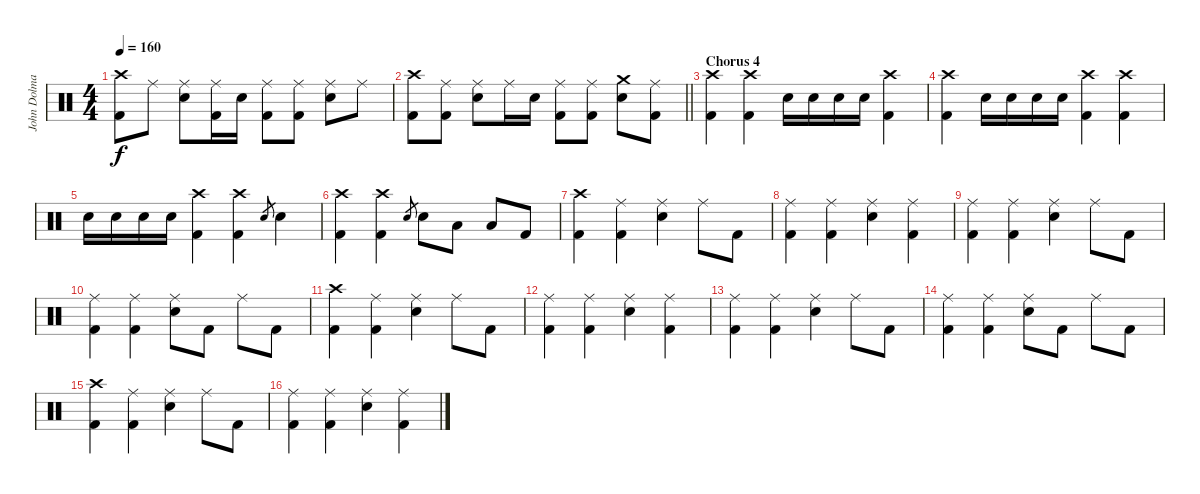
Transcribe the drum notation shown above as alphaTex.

\track ("John Dolmayan(Drums)" "John Dolma") {instrument percussion}
\staff {score}
\articulation defaults
\ts (4 4)
\tempo 160
\clef neutral
\ks c
("Crash high (hit)" "Kick (hit) 2").8{dy f} "Ride (middle)".8 ("Ride (middle)" "Snare (hit) 2").8 ("Ride (middle)" "Kick (hit) 2").16 "Snare (hit) 2".16 ("Ride (middle)" "Kick (hit) 2").8 ("Ride (middle)" "Kick (hit) 2").8 ("Ride (middle)" "Snare (hit) 2").8 "Ride (middle)".8 |
\barLineRight lightlight
("Crash high (hit)" "Kick (hit) 2").8 ("Ride (middle)" "Kick (hit) 2").8 ("Ride (middle)" "Snare (hit) 2").8 "Ride (middle)".16 "Snare (hit) 2".16 ("Ride (middle)" "Kick (hit) 2").8 ("Ride (middle)" "Kick (hit) 2").8 ("Crash medium (hit)" "Snare (hit) 2").8 ("Ride (middle)" "Kick (hit) 2").8 |
\section ("" "Chorus 4")
("Crash high (hit)" "Kick (hit) 2").4 ("Crash high (hit)" "Kick (hit) 2").4 "Snare (hit) 2".16 "Snare (hit) 2".16 "Snare (hit) 2".16 "Snare (hit) 2".16 ("Crash high (hit)" "Kick (hit) 2").4 |
("Crash high (hit)" "Kick (hit) 2").4 "Snare (hit) 2".16 "Snare (hit) 2".16 "Snare (hit) 2".16 "Snare (hit) 2".16 ("Crash high (hit)" "Kick (hit) 2").4 ("Crash high (hit)" "Kick (hit) 2").4 |
"Snare (hit) 2".16 "Snare (hit) 2".16 "Snare (hit) 2".16 "Snare (hit) 2".16 ("Crash high (hit)" "Kick (hit) 2").4 ("Crash high (hit)" "Kick (hit) 2").4 "Snare (hit) 2".8{gr} "Snare (hit) 2".4 |
("Crash high (hit)" "Kick (hit) 2").4 ("Crash high (hit)" "Kick (hit) 2").4 "Snare (hit) 2".8{gr} "Snare (hit) 2".8 "Low Tom (hit)".8 "Low Tom (hit)".8 "Kick (hit) 2".8 |
("Crash high (hit)" "Kick (hit) 2").4 ("Ride (middle)" "Kick (hit) 2").4 ("Ride (middle)" "Snare (hit) 2").4 "Ride (middle)".8 "Kick (hit) 2".8 |
("Ride (middle)" "Kick (hit) 2").4 ("Ride (middle)" "Kick (hit) 2").4 ("Ride (middle)" "Snare (hit) 2").4 ("Ride (middle)" "Kick (hit) 2").4 |
("Ride (middle)" "Kick (hit) 2").4 ("Ride (middle)" "Kick (hit) 2").4 ("Ride (middle)" "Snare (hit) 2").4 "Ride (middle)".8 "Kick (hit) 2".8 |
("Ride (middle)" "Kick (hit) 2").4 ("Ride (middle)" "Kick (hit) 2").4 ("Ride (middle)" "Snare (hit) 2").8 "Kick (hit) 2".8 "Ride (middle)".8 "Kick (hit) 2".8 |
("Crash high (hit)" "Kick (hit) 2").4 ("Ride (middle)" "Kick (hit) 2").4 ("Ride (middle)" "Snare (hit) 2").4 "Ride (middle)".8 "Kick (hit) 2".8 |
("Ride (middle)" "Kick (hit) 2").4 ("Ride (middle)" "Kick (hit) 2").4 ("Ride (middle)" "Snare (hit) 2").4 ("Ride (middle)" "Kick (hit) 2").4 |
("Ride (middle)" "Kick (hit) 2").4 ("Ride (middle)" "Kick (hit) 2").4 ("Ride (middle)" "Snare (hit) 2").4 "Ride (middle)".8 "Kick (hit) 2".8 |
("Ride (middle)" "Kick (hit) 2").4 ("Ride (middle)" "Kick (hit) 2").4 ("Ride (middle)" "Snare (hit) 2").8 "Kick (hit) 2".8 "Ride (middle)".8 "Kick (hit) 2".8 |
("Crash high (hit)" "Kick (hit) 2").4 ("Ride (middle)" "Kick (hit) 2").4 ("Ride (middle)" "Snare (hit) 2").4 "Ride (middle)".8 "Kick (hit) 2".8 |
("Ride (middle)" "Kick (hit) 2").4 ("Ride (middle)" "Kick (hit) 2").4 ("Ride (middle)" "Snare (hit) 2").4 ("Ride (middle)" "Kick (hit) 2").4
